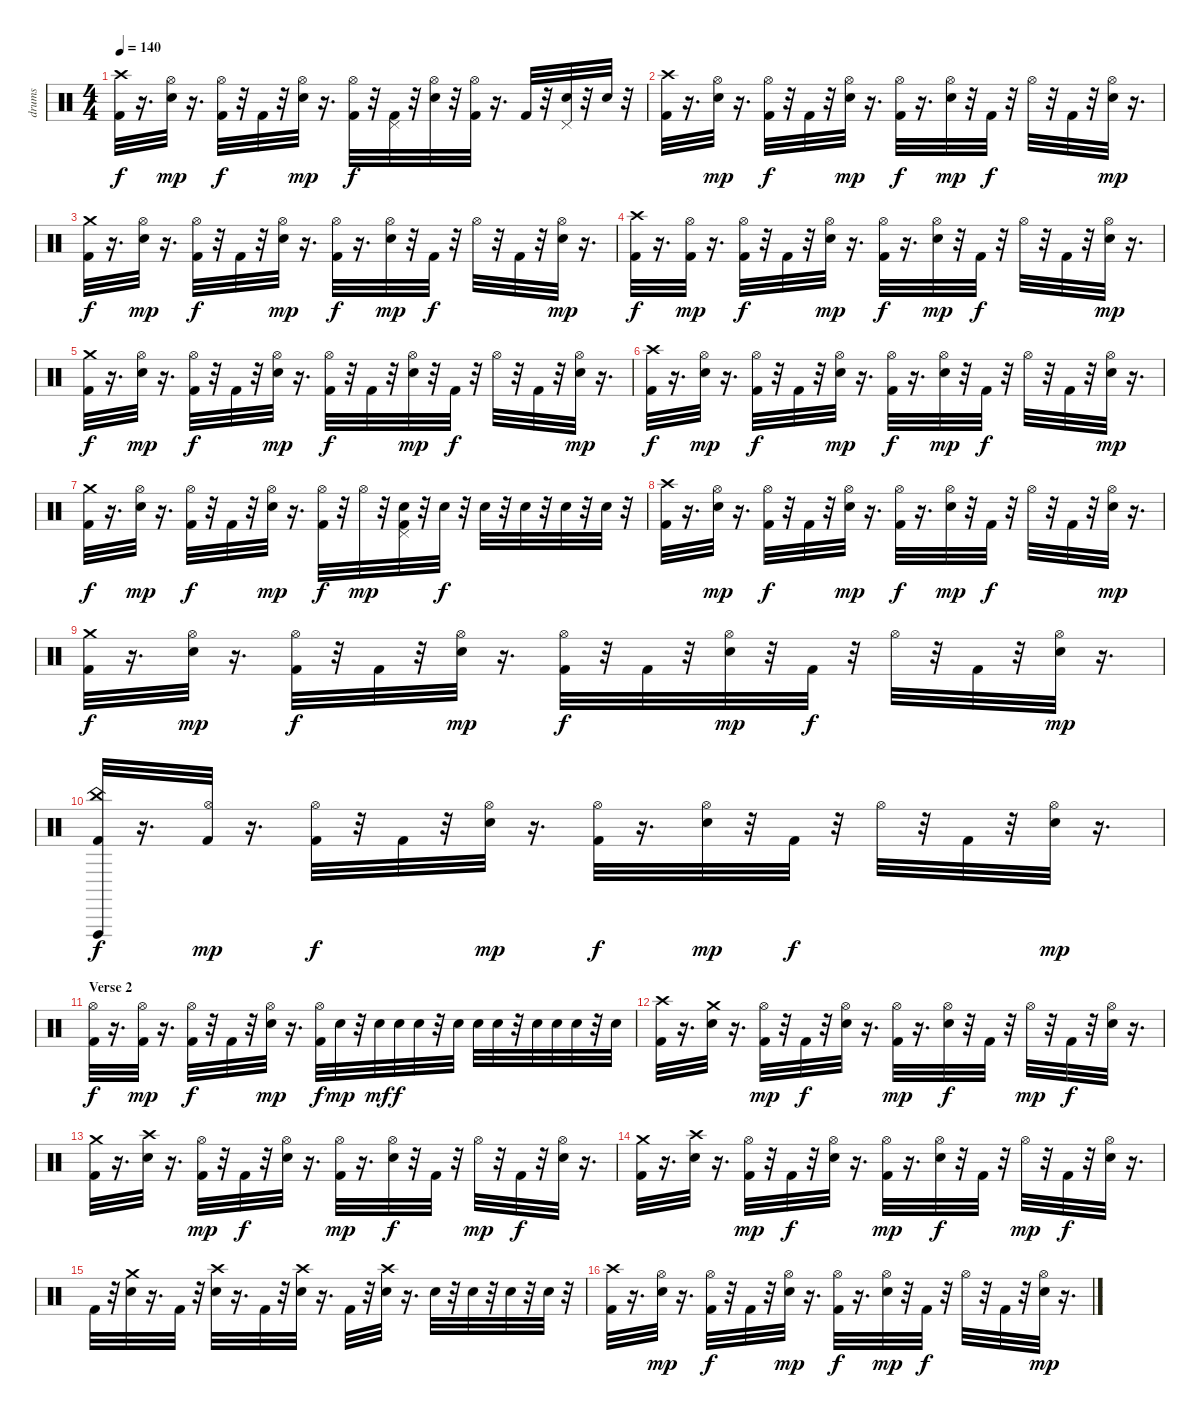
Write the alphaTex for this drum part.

\track ("drums" "drums") {instrument percussion}
\staff {score}
\articulation defaults
\ts (4 4)
\tempo 140
\clef neutral
\ks c
("Crash high (hit)" "Kick (hit) 2").32{dy f} r.16{d} ("Hi-Hat (open)" "Electric Snare (hit)").32{dy mp} r.16{d} ("Hi-Hat (open)" "Kick (hit) 2").32{dy f} r.32 "Kick (hit) 2".32 r.32 ("Hi-Hat (open)" "Electric Snare (hit)").32{dy mp} r.16{d} ("Hi-Hat (open)" "Kick (hit) 2").32{dy f} r.32 ("Kick (hit) 2" "Pedal Hi-Hat (hit)").32 r.32 ("Hi-Hat (open)" "Electric Snare (hit)").32 r.32 ("Kick (hit) 2" "Hi-Hat (open)").32 r.16{d} "Kick (hit) 2".32 r.32 ("Pedal Hi-Hat (hit)" "Electric Snare (hit)").32 r.32 "Electric Snare (hit)".32 r.32 |
("Crash high (hit)" "Kick (hit) 2").32 r.16{d} ("Hi-Hat (open)" "Electric Snare (hit)").32{dy mp} r.16{d} ("Hi-Hat (open)" "Kick (hit) 2").32{dy f} r.32 "Kick (hit) 2".32 r.32 ("Hi-Hat (open)" "Electric Snare (hit)").32{dy mp} r.16{d} ("Hi-Hat (open)" "Kick (hit) 2").32{dy f} r.16{d} ("Hi-Hat (open)" "Electric Snare (hit)").32{dy mp} r.32 "Kick (hit) 2".32{dy f} r.32 "Hi-Hat (open)".32 r.32 "Kick (hit) 2".32 r.32 ("Hi-Hat (open)" "Electric Snare (hit)").32{dy mp} r.16{d} |
("Crash medium (hit)" "Kick (hit) 2").32{dy f} r.16{d} ("Hi-Hat (open)" "Electric Snare (hit)").32{dy mp} r.16{d} ("Hi-Hat (open)" "Kick (hit) 2").32{dy f} r.32 "Kick (hit) 2".32 r.32 ("Hi-Hat (open)" "Electric Snare (hit)").32{dy mp} r.16{d} ("Hi-Hat (open)" "Kick (hit) 2").32{dy f} r.16{d} ("Hi-Hat (open)" "Electric Snare (hit)").32{dy mp} r.32 "Kick (hit) 2".32{dy f} r.32 "Hi-Hat (open)".32 r.32 "Kick (hit) 2".32 r.32 ("Hi-Hat (open)" "Electric Snare (hit)").32{dy mp} r.16{d} |
("Crash high (hit)" "Kick (hit) 2").32{dy f} r.16{d} ("Kick (hit) 2" "Hi-Hat (open)").32{dy mp} r.16{d} ("Hi-Hat (open)" "Kick (hit) 2").32{dy f} r.32 "Kick (hit) 2".32 r.32 ("Hi-Hat (open)" "Electric Snare (hit)").32{dy mp} r.16{d} ("Hi-Hat (open)" "Kick (hit) 2").32{dy f} r.16{d} ("Hi-Hat (open)" "Electric Snare (hit)").32{dy mp} r.32 "Kick (hit) 2".32{dy f} r.32 "Hi-Hat (open)".32 r.32 "Kick (hit) 2".32 r.32 ("Hi-Hat (open)" "Electric Snare (hit)").32{dy mp} r.16{d} |
("Crash medium (hit)" "Kick (hit) 2").32{dy f} r.16{d} ("Hi-Hat (open)" "Electric Snare (hit)").32{dy mp} r.16{d} ("Hi-Hat (open)" "Kick (hit) 2").32{dy f} r.32 "Kick (hit) 2".32 r.32 ("Hi-Hat (open)" "Electric Snare (hit)").32{dy mp} r.16{d} ("Hi-Hat (open)" "Kick (hit) 2").32{dy f} r.32 "Kick (hit) 2".32 r.32 ("Hi-Hat (open)" "Electric Snare (hit)").32{dy mp} r.32 "Kick (hit) 2".32{dy f} r.32 "Hi-Hat (open)".32 r.32 "Kick (hit) 2".32 r.32 ("Hi-Hat (open)" "Electric Snare (hit)").32{dy mp} r.16{d} |
("Crash high (hit)" "Kick (hit) 2").32{dy f} r.16{d} ("Hi-Hat (open)" "Electric Snare (hit)").32{dy mp} r.16{d} ("Hi-Hat (open)" "Kick (hit) 2").32{dy f} r.32 "Kick (hit) 2".32 r.32 ("Hi-Hat (open)" "Electric Snare (hit)").32{dy mp} r.16{d} ("Hi-Hat (open)" "Kick (hit) 2").32{dy f} r.16{d} ("Hi-Hat (open)" "Electric Snare (hit)").32{dy mp} r.32 "Kick (hit) 2".32{dy f} r.32 "Hi-Hat (open)".32 r.32 "Kick (hit) 2".32 r.32 ("Hi-Hat (open)" "Electric Snare (hit)").32{dy mp} r.16{d} |
("Crash medium (hit)" "Kick (hit) 2").32{dy f} r.16{d} ("Hi-Hat (open)" "Electric Snare (hit)").32{dy mp} r.16{d} ("Hi-Hat (open)" "Kick (hit) 2").32{dy f} r.32 "Kick (hit) 2".32 r.32 ("Hi-Hat (open)" "Electric Snare (hit)").32{dy mp} r.16{d} ("Hi-Hat (open)" "Kick (hit) 2").32{dy f} r.32 "Hi-Hat (open)".32{dy mp} r.32 ("Electric Snare (hit)" "Pedal Hi-Hat (hit)" "Kick (hit) 2").32 r.32 "Electric Snare (hit)".32{dy f} r.32 "Electric Snare (hit)".32 r.32 "Electric Snare (hit)".32 r.32 "Electric Snare (hit)".32 r.32 "Electric Snare (hit)".32 r.32 |
("Crash high (hit)" "Kick (hit) 2").32 r.16{d} ("Electric Snare (hit)" "Hi-Hat (open)").32{dy mp} r.16{d} ("Hi-Hat (open)" "Kick (hit) 2").32{dy f} r.32 "Kick (hit) 2".32 r.32 ("Hi-Hat (open)" "Electric Snare (hit)").32{dy mp} r.16{d} ("Hi-Hat (open)" "Kick (hit) 2").32{dy f} r.16{d} ("Hi-Hat (open)" "Electric Snare (hit)").32{dy mp} r.32 "Kick (hit) 2".32{dy f} r.32 "Hi-Hat (open)".32 r.32 "Kick (hit) 2".32 r.32 ("Hi-Hat (open)" "Electric Snare (hit)").32{dy mp} r.16{d} |
("Crash medium (hit)" "Kick (hit) 2").32{dy f} r.16{d} ("Hi-Hat (open)" "Electric Snare (hit)").32{dy mp} r.16{d} ("Hi-Hat (open)" "Kick (hit) 2").32{dy f} r.32 "Kick (hit) 2".32 r.32 ("Hi-Hat (open)" "Electric Snare (hit)").32{dy mp} r.16{d} ("Hi-Hat (open)" "Kick (hit) 2").32{dy f} r.32 "Kick (hit) 2".32 r.32 ("Hi-Hat (open)" "Electric Snare (hit)").32{dy mp} r.32 "Kick (hit) 2".32{dy f} r.32 "Hi-Hat (open)".32 r.32 "Kick (hit) 2".32 r.32 ("Hi-Hat (open)" "Electric Snare (hit)").32{dy mp} r.16{d} |
("Kick (hit) 2" "China (hit)" "Vibraslap (hit)").32{dy f} r.16{d} ("Hi-Hat (open)" "Kick (hit) 2").32{dy mp} r.16{d} ("Hi-Hat (open)" "Kick (hit) 2").32{dy f} r.32 "Kick (hit) 2".32 r.32 ("Hi-Hat (open)" "Electric Snare (hit)").32{dy mp} r.16{d} ("Hi-Hat (open)" "Kick (hit) 2").32{dy f} r.16{d} ("Hi-Hat (open)" "Electric Snare (hit)").32{dy mp} r.32 "Kick (hit) 2".32{dy f} r.32 "Hi-Hat (open)".32 r.32 "Kick (hit) 2".32 r.32 ("Hi-Hat (open)" "Electric Snare (hit)").32{dy mp} r.16{d} |
\section ("" "Verse 2")
("Hi-Hat (open)" "Kick (hit) 2").32{dy f} r.16{d} ("Hi-Hat (open)" "Kick (hit) 2").32{dy mp} r.16{d} ("Hi-Hat (open)" "Kick (hit) 2").32{dy f} r.32 "Kick (hit) 2".32 r.32 ("Hi-Hat (open)" "Electric Snare (hit)").32{dy mp} r.16{d} ("Hi-Hat (open)" "Kick (hit) 2").32{dy f} "Electric Snare (hit)".32{dy mp} r.32 "Electric Snare (hit)".32{dy mf} "Electric Snare (hit)".32{dy f} "Electric Snare (hit)".32 r.32 "Electric Snare (hit)".32 "Electric Snare (hit)".32 "Electric Snare (hit)".32 r.32 "Electric Snare (hit)".32 "Electric Snare (hit)".32 "Electric Snare (hit)".32 r.32 "Electric Snare (hit)".32 |
("Crash high (hit)" "Kick (hit) 2").32 r.16{d} ("Crash medium (hit)" "Electric Snare (hit)").32 r.16{d} ("Hi-Hat (open)" "Kick (hit) 2").32{dy mp} r.32 "Kick (hit) 2".32{dy f} r.32 ("Hi-Hat (open)" "Electric Snare (hit)").32 r.16{d} ("Hi-Hat (open)" "Kick (hit) 2").32{dy mp} r.16{d} ("Hi-Hat (open)" "Electric Snare (hit)").32{dy f} r.32 "Kick (hit) 2".32 r.32 "Hi-Hat (open)".32{dy mp} r.32 "Kick (hit) 2".32{dy f} r.32 ("Hi-Hat (open)" "Electric Snare (hit)").32 r.16{d} |
("Crash medium (hit)" "Kick (hit) 2").32 r.16{d} ("Electric Snare (hit)" "Crash high (hit)").32 r.16{d} ("Hi-Hat (open)" "Kick (hit) 2").32{dy mp} r.32 "Kick (hit) 2".32{dy f} r.32 ("Hi-Hat (open)" "Electric Snare (hit)").32 r.16{d} ("Hi-Hat (open)" "Kick (hit) 2").32{dy mp} r.16{d} ("Hi-Hat (open)" "Electric Snare (hit)").32{dy f} r.32 "Kick (hit) 2".32 r.32 "Hi-Hat (open)".32{dy mp} r.32 "Kick (hit) 2".32{dy f} r.32 ("Hi-Hat (open)" "Electric Snare (hit)").32 r.16{d} |
("Kick (hit) 2" "Crash medium (hit)").32 r.16{d} ("Electric Snare (hit)" "Crash high (hit)").32 r.16{d} ("Hi-Hat (open)" "Kick (hit) 2").32{dy mp} r.32 "Kick (hit) 2".32{dy f} r.32 ("Electric Snare (hit)" "Hi-Hat (open)").32 r.16{d} ("Hi-Hat (open)" "Kick (hit) 2").32{dy mp} r.16{d} ("Electric Snare (hit)" "Hi-Hat (open)").32{dy f} r.32 "Kick (hit) 2".32 r.32 "Hi-Hat (open)".32{dy mp} r.32 "Kick (hit) 2".32{dy f} r.32 ("Electric Snare (hit)" "Hi-Hat (open)").32 r.16{d} |
"Kick (hit) 2".32 r.32 ("Crash medium (hit)" "Electric Snare (hit)").32 r.16{d} "Kick (hit) 2".32 r.32 ("Crash high (hit)" "Electric Snare (hit)").32 r.16{d} "Kick (hit) 2".32 r.32 ("Crash high (hit)" "Electric Snare (hit)").32 r.16{d} "Kick (hit) 2".32 r.32 ("Crash high (hit)" "Electric Snare (hit)").32 r.16{d} "Electric Snare (hit)".32 r.32 "Electric Snare (hit)".32 r.32 "Electric Snare (hit)".32 r.32 "Electric Snare (hit)".32 r.32 |
("Crash high (hit)" "Kick (hit) 2").32 r.16{d} ("Hi-Hat (open)" "Electric Snare (hit)").32{dy mp} r.16{d} ("Hi-Hat (open)" "Kick (hit) 2").32{dy f} r.32 "Kick (hit) 2".32 r.32 ("Hi-Hat (open)" "Electric Snare (hit)").32{dy mp} r.16{d} ("Hi-Hat (open)" "Kick (hit) 2").32{dy f} r.16{d} ("Hi-Hat (open)" "Electric Snare (hit)").32{dy mp} r.32 "Kick (hit) 2".32{dy f} r.32 "Hi-Hat (open)".32 r.32 "Kick (hit) 2".32 r.32 ("Hi-Hat (open)" "Electric Snare (hit)").32{dy mp} r.16{d}
